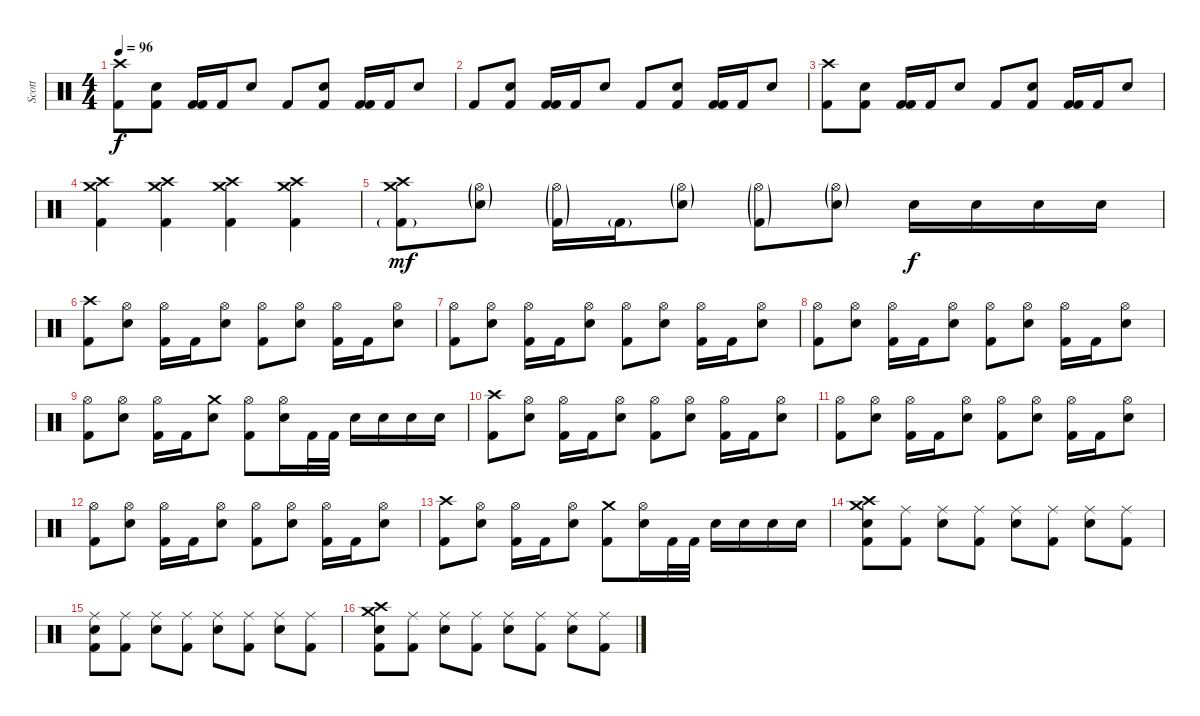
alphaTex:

\track ("Scott" "Scott") {instrument percussion}
\staff {score}
\articulation defaults
\ts (4 4)
\tempo 96
\clef neutral
\ks c
("Kick (hit) 2" "Crash high (hit)").8{dy f} ("Kick (hit) 2" "Snare (hit) 2").8 ("Kick (hit) 2" "Kick (hit) 2").16 "Kick (hit) 2".16 "Snare (hit) 2".8 "Kick (hit) 2".8 ("Kick (hit) 2" "Snare (hit) 2").8 ("Kick (hit) 2" "Kick (hit) 2").16 "Kick (hit) 2".16 "Snare (hit) 2".8 |
"Kick (hit) 2".8 ("Kick (hit) 2" "Snare (hit) 2").8 ("Kick (hit) 2" "Kick (hit) 2").16 "Kick (hit) 2".16 "Snare (hit) 2".8 "Kick (hit) 2".8 ("Kick (hit) 2" "Snare (hit) 2").8 ("Kick (hit) 2" "Kick (hit) 2").16 "Kick (hit) 2".16 "Snare (hit) 2".8 |
("Kick (hit) 2" "Crash high (hit)").8 ("Kick (hit) 2" "Snare (hit) 2").8 ("Kick (hit) 2" "Kick (hit) 2").16 "Kick (hit) 2".16 "Snare (hit) 2".8 "Kick (hit) 2".8 ("Kick (hit) 2" "Snare (hit) 2").8 ("Kick (hit) 2" "Kick (hit) 2").16 "Kick (hit) 2".16 "Snare (hit) 2".8 |
("Crash high (hit)" "Crash medium (hit)" "Kick (hit) 2").4 ("Crash medium (hit)" "Crash high (hit)" "Kick (hit) 2").4 ("Crash high (hit)" "Crash medium (hit)" "Kick (hit) 2").4 ("Crash medium (hit)" "Crash high (hit)" "Kick (hit) 2").4 |
("Kick (hit) 2"{g} "Crash medium (hit)" "Crash high (hit)").8{dy mf} ("Hi-Hat (open)"{g} "Snare (hit) 2"{g}).8 ("Hi-Hat (open)"{g} "Kick (hit) 2"{g}).16 "Kick (hit) 2"{g}.16 ("Snare (hit) 2"{g} "Hi-Hat (open)"{g}).8 ("Kick (hit) 2"{g} "Hi-Hat (open)"{g}).8 ("Hi-Hat (open)"{g} "Snare (hit) 2"{g}).8 "Snare (hit) 2".16{dy f} "Snare (hit) 2".16 "Snare (hit) 2".16 "Snare (hit) 2".16 |
("Kick (hit) 2" "Crash high (hit)").8 ("Hi-Hat (open)" "Snare (hit) 2").8 ("Hi-Hat (open)" "Kick (hit) 2").16 "Kick (hit) 2".16 ("Snare (hit) 2" "Hi-Hat (open)").8 ("Kick (hit) 2" "Hi-Hat (open)").8 ("Hi-Hat (open)" "Snare (hit) 2").8 ("Hi-Hat (open)" "Kick (hit) 2").16 "Kick (hit) 2".16 ("Snare (hit) 2" "Hi-Hat (open)").8 |
("Kick (hit) 2" "Hi-Hat (open)").8 ("Hi-Hat (open)" "Snare (hit) 2").8 ("Hi-Hat (open)" "Kick (hit) 2").16 "Kick (hit) 2".16 ("Snare (hit) 2" "Hi-Hat (open)").8 ("Kick (hit) 2" "Hi-Hat (open)").8 ("Hi-Hat (open)" "Snare (hit) 2").8 ("Hi-Hat (open)" "Kick (hit) 2").16 "Kick (hit) 2".16 ("Snare (hit) 2" "Hi-Hat (open)").8 |
("Kick (hit) 2" "Hi-Hat (open)").8 ("Hi-Hat (open)" "Snare (hit) 2").8 ("Hi-Hat (open)" "Kick (hit) 2").16 "Kick (hit) 2".16 ("Snare (hit) 2" "Hi-Hat (open)").8 ("Kick (hit) 2" "Hi-Hat (open)").8 ("Hi-Hat (open)" "Snare (hit) 2").8 ("Hi-Hat (open)" "Kick (hit) 2").16 "Kick (hit) 2".16 ("Snare (hit) 2" "Hi-Hat (open)").8 |
("Kick (hit) 2" "Hi-Hat (open)").8 ("Hi-Hat (open)" "Snare (hit) 2").8 ("Hi-Hat (open)" "Kick (hit) 2").16 "Kick (hit) 2".16 ("Snare (hit) 2" "Crash medium (hit)").8 ("Kick (hit) 2" "Hi-Hat (open)").8 ("Hi-Hat (open)" "Snare (hit) 2").16 "Kick (hit) 2".32 "Kick (hit) 2".32 "Snare (hit) 2".16 "Snare (hit) 2".16 "Snare (hit) 2".16 "Snare (hit) 2".16 |
("Kick (hit) 2" "Crash high (hit)").8 ("Hi-Hat (open)" "Snare (hit) 2").8 ("Hi-Hat (open)" "Kick (hit) 2").16 "Kick (hit) 2".16 ("Snare (hit) 2" "Hi-Hat (open)").8 ("Kick (hit) 2" "Hi-Hat (open)").8 ("Hi-Hat (open)" "Snare (hit) 2").8 ("Hi-Hat (open)" "Kick (hit) 2").16 "Kick (hit) 2".16 ("Snare (hit) 2" "Hi-Hat (open)").8 |
("Kick (hit) 2" "Hi-Hat (open)").8 ("Hi-Hat (open)" "Snare (hit) 2").8 ("Hi-Hat (open)" "Kick (hit) 2").16 "Kick (hit) 2".16 ("Snare (hit) 2" "Hi-Hat (open)").8 ("Kick (hit) 2" "Hi-Hat (open)").8 ("Hi-Hat (open)" "Snare (hit) 2").8 ("Hi-Hat (open)" "Kick (hit) 2").16 "Kick (hit) 2".16 ("Snare (hit) 2" "Hi-Hat (open)").8 |
("Kick (hit) 2" "Hi-Hat (open)").8 ("Hi-Hat (open)" "Snare (hit) 2").8 ("Hi-Hat (open)" "Kick (hit) 2").16 "Kick (hit) 2".16 ("Snare (hit) 2" "Hi-Hat (open)").8 ("Kick (hit) 2" "Hi-Hat (open)").8 ("Hi-Hat (open)" "Snare (hit) 2").8 ("Hi-Hat (open)" "Kick (hit) 2").16 "Kick (hit) 2".16 ("Snare (hit) 2" "Hi-Hat (open)").8 |
("Kick (hit) 2" "Crash high (hit)").8 ("Hi-Hat (open)" "Snare (hit) 2").8 ("Hi-Hat (open)" "Kick (hit) 2").16 "Kick (hit) 2".16 ("Snare (hit) 2" "Hi-Hat (open)").8 ("Kick (hit) 2" "Crash medium (hit)").8 ("Hi-Hat (open)" "Snare (hit) 2").16 "Kick (hit) 2".32 "Kick (hit) 2".32 "Snare (hit) 2".16 "Snare (hit) 2".16 "Snare (hit) 2".16 "Snare (hit) 2".16 |
("Crash high (hit)" "Crash medium (hit)" "Snare (hit) 2" "Kick (hit) 2").8 ("Ride (middle)" "Kick (hit) 2").8 ("Ride (middle)" "Snare (hit) 2").8 ("Ride (middle)" "Kick (hit) 2").8 ("Ride (middle)" "Snare (hit) 2").8 ("Ride (middle)" "Kick (hit) 2").8 ("Ride (middle)" "Snare (hit) 2").8 ("Ride (middle)" "Kick (hit) 2").8 |
("Ride (middle)" "Snare (hit) 2" "Kick (hit) 2").8 ("Ride (middle)" "Kick (hit) 2").8 ("Ride (middle)" "Snare (hit) 2").8 ("Ride (middle)" "Kick (hit) 2").8 ("Ride (middle)" "Snare (hit) 2").8 ("Ride (middle)" "Kick (hit) 2").8 ("Ride (middle)" "Snare (hit) 2").8 ("Ride (middle)" "Kick (hit) 2").8 |
("Crash high (hit)" "Crash medium (hit)" "Snare (hit) 2" "Kick (hit) 2").8 ("Ride (middle)" "Kick (hit) 2").8 ("Ride (middle)" "Snare (hit) 2").8 ("Ride (middle)" "Kick (hit) 2").8 ("Ride (middle)" "Snare (hit) 2").8 ("Ride (middle)" "Kick (hit) 2").8 ("Ride (middle)" "Snare (hit) 2").8 ("Ride (middle)" "Kick (hit) 2").8
